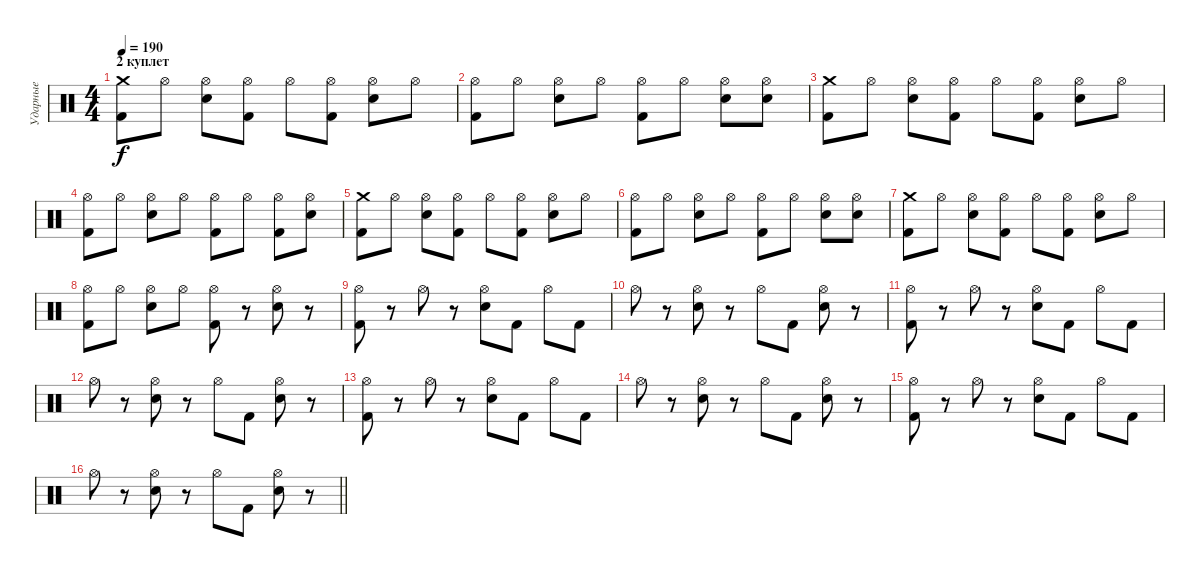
\track ("Ударные" "Ударные") {instrument percussion}
\staff {score}
\articulation defaults
\ts (4 4)
\section ("" "2 куплет")
\tempo 190
\clef neutral
\ks c
("Crash medium (hit)" "Kick (hit) 2").8{dy f} "Hi-Hat (open)".8 ("Hi-Hat (open)" "Electric Snare (hit)").8 ("Hi-Hat (open)" "Kick (hit) 2").8 "Hi-Hat (open)".8 ("Hi-Hat (open)" "Kick (hit) 2").8 ("Hi-Hat (open)" "Electric Snare (hit)").8 "Hi-Hat (open)".8 |
("Hi-Hat (open)" "Kick (hit) 2").8 "Hi-Hat (open)".8 ("Hi-Hat (open)" "Electric Snare (hit)").8 "Hi-Hat (open)".8 ("Hi-Hat (open)" "Kick (hit) 2").8 "Hi-Hat (open)".8 ("Hi-Hat (open)" "Electric Snare (hit)").8 ("Hi-Hat (open)" "Electric Snare (hit)").8 |
("Crash medium (hit)" "Kick (hit) 2").8 "Hi-Hat (open)".8 ("Hi-Hat (open)" "Electric Snare (hit)").8 ("Hi-Hat (open)" "Kick (hit) 2").8 "Hi-Hat (open)".8 ("Hi-Hat (open)" "Kick (hit) 2").8 ("Hi-Hat (open)" "Electric Snare (hit)").8 "Hi-Hat (open)".8 |
("Hi-Hat (open)" "Kick (hit) 2").8 "Hi-Hat (open)".8 ("Hi-Hat (open)" "Electric Snare (hit)").8 "Hi-Hat (open)".8 ("Hi-Hat (open)" "Kick (hit) 2").8 "Hi-Hat (open)".8 ("Hi-Hat (open)" "Kick (hit) 2").8 ("Hi-Hat (open)" "Electric Snare (hit)").8 |
("Crash medium (hit)" "Kick (hit) 2").8 "Hi-Hat (open)".8 ("Hi-Hat (open)" "Electric Snare (hit)").8 ("Hi-Hat (open)" "Kick (hit) 2").8 "Hi-Hat (open)".8 ("Hi-Hat (open)" "Kick (hit) 2").8 ("Hi-Hat (open)" "Electric Snare (hit)").8 "Hi-Hat (open)".8 |
("Hi-Hat (open)" "Kick (hit) 2").8 "Hi-Hat (open)".8 ("Hi-Hat (open)" "Electric Snare (hit)").8 "Hi-Hat (open)".8 ("Hi-Hat (open)" "Kick (hit) 2").8 "Hi-Hat (open)".8 ("Hi-Hat (open)" "Electric Snare (hit)").8 ("Hi-Hat (open)" "Electric Snare (hit)").8 |
("Crash medium (hit)" "Kick (hit) 2").8 "Hi-Hat (open)".8 ("Hi-Hat (open)" "Electric Snare (hit)").8 ("Hi-Hat (open)" "Kick (hit) 2").8 "Hi-Hat (open)".8 ("Hi-Hat (open)" "Kick (hit) 2").8 ("Hi-Hat (open)" "Electric Snare (hit)").8 "Hi-Hat (open)".8 |
("Hi-Hat (open)" "Kick (hit) 2").8 "Hi-Hat (open)".8 ("Hi-Hat (open)" "Electric Snare (hit)").8 "Hi-Hat (open)".8 ("Hi-Hat (open)" "Kick (hit) 2").8 r.8 ("Hi-Hat (open)" "Electric Snare (hit)").8 r.8 |
("Hi-Hat (open)" "Kick (hit) 2").8 r.8 "Hi-Hat (open)".8 r.8 ("Hi-Hat (open)" "Electric Snare (hit)").8 "Kick (hit) 2".8 "Hi-Hat (open)".8 "Kick (hit) 2".8 |
"Hi-Hat (open)".8 r.8 ("Hi-Hat (open)" "Electric Snare (hit)").8 r.8 "Hi-Hat (open)".8 "Kick (hit) 2".8 ("Hi-Hat (open)" "Electric Snare (hit)").8 r.8 |
("Hi-Hat (open)" "Kick (hit) 2").8 r.8 "Hi-Hat (open)".8 r.8 ("Hi-Hat (open)" "Electric Snare (hit)").8 "Kick (hit) 2".8 "Hi-Hat (open)".8 "Kick (hit) 2".8 |
"Hi-Hat (open)".8 r.8 ("Hi-Hat (open)" "Electric Snare (hit)").8 r.8 "Hi-Hat (open)".8 "Kick (hit) 2".8 ("Hi-Hat (open)" "Electric Snare (hit)").8 r.8 |
("Hi-Hat (open)" "Kick (hit) 2").8 r.8 "Hi-Hat (open)".8 r.8 ("Hi-Hat (open)" "Electric Snare (hit)").8 "Kick (hit) 2".8 "Hi-Hat (open)".8 "Kick (hit) 2".8 |
"Hi-Hat (open)".8 r.8 ("Hi-Hat (open)" "Electric Snare (hit)").8 r.8 "Hi-Hat (open)".8 "Kick (hit) 2".8 ("Hi-Hat (open)" "Electric Snare (hit)").8 r.8 |
("Hi-Hat (open)" "Kick (hit) 2").8 r.8 "Hi-Hat (open)".8 r.8 ("Hi-Hat (open)" "Electric Snare (hit)").8 "Kick (hit) 2".8 "Hi-Hat (open)".8 "Kick (hit) 2".8 |
\barLineRight lightlight "Hi-Hat (open)".8
r.8 ("Hi-Hat (open)" "Electric Snare (hit)").8 r.8 "Hi-Hat (open)".8 "Kick (hit) 2".8 ("Hi-Hat (open)" "Electric Snare (hit)").8 r.8
